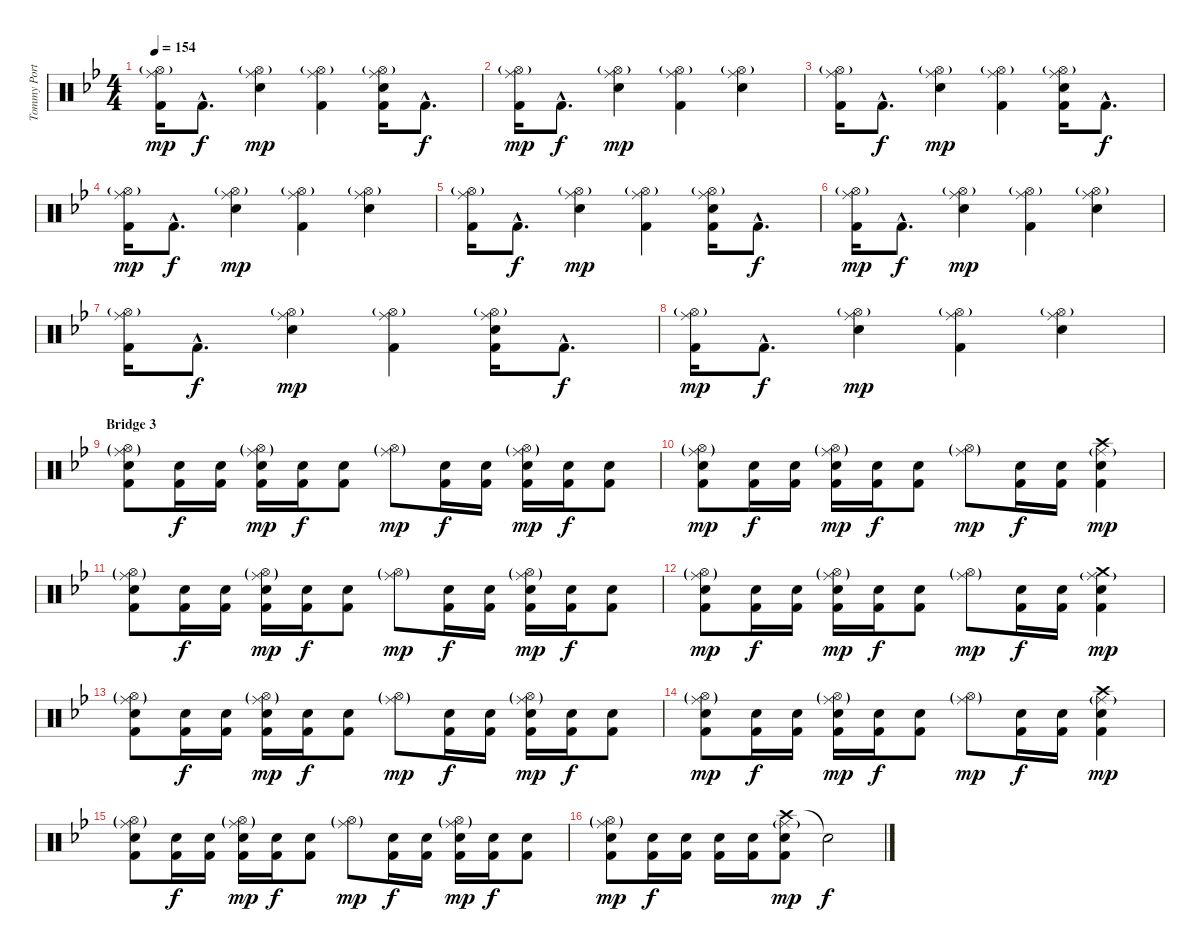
\track ("Tommy Portimo" "Tommy Port") {instrument percussion}
\staff {score}
\articulation defaults
\ts (4 4)
\tempo 154
\clef neutral
\ks gminor
("Hi-Hat (open)"{g} "Ride (middle)" "Kick (hit) 2").16{dy mp} "Kick (hit) 2"{hac}.8{d dy f} ("Hi-Hat (open)"{g} "Ride (middle)" "Electric Snare (hit)").4{dy mp} ("Hi-Hat (open)"{g} "Ride (middle)" "Kick (hit) 2").4 ("Hi-Hat (open)"{g} "Ride (middle)" "Electric Snare (hit)" "Kick (hit) 2").16 "Kick (hit) 2"{hac}.8{d dy f} |
("Hi-Hat (open)"{g} "Ride (middle)" "Kick (hit) 2").16{dy mp} "Kick (hit) 2"{hac}.8{d dy f} ("Hi-Hat (open)"{g} "Ride (middle)" "Electric Snare (hit)").4{dy mp} ("Hi-Hat (open)"{g} "Ride (middle)" "Kick (hit) 2").4 ("Hi-Hat (open)"{g} "Ride (middle)" "Electric Snare (hit)").4 |
("Hi-Hat (open)"{g} "Ride (middle)" "Kick (hit) 2").16 "Kick (hit) 2"{hac}.8{d dy f} ("Hi-Hat (open)"{g} "Ride (middle)" "Electric Snare (hit)").4{dy mp} ("Hi-Hat (open)"{g} "Ride (middle)" "Kick (hit) 2").4 ("Hi-Hat (open)"{g} "Ride (middle)" "Electric Snare (hit)" "Kick (hit) 2").16 "Kick (hit) 2"{hac}.8{d dy f} |
("Hi-Hat (open)"{g} "Ride (middle)" "Kick (hit) 2").16{dy mp} "Kick (hit) 2"{hac}.8{d dy f} ("Hi-Hat (open)"{g} "Ride (middle)" "Electric Snare (hit)").4{dy mp} ("Hi-Hat (open)"{g} "Ride (middle)" "Kick (hit) 2").4 ("Hi-Hat (open)"{g} "Ride (middle)" "Electric Snare (hit)").4 |
("Hi-Hat (open)"{g} "Ride (middle)" "Kick (hit) 2").16 "Kick (hit) 2"{hac}.8{d dy f} ("Hi-Hat (open)"{g} "Ride (middle)" "Electric Snare (hit)").4{dy mp} ("Hi-Hat (open)"{g} "Ride (middle)" "Kick (hit) 2").4 ("Hi-Hat (open)"{g} "Ride (middle)" "Electric Snare (hit)" "Kick (hit) 2").16 "Kick (hit) 2"{hac}.8{d dy f} |
("Hi-Hat (open)"{g} "Ride (middle)" "Kick (hit) 2").16{dy mp} "Kick (hit) 2"{hac}.8{d dy f} ("Hi-Hat (open)"{g} "Ride (middle)" "Electric Snare (hit)").4{dy mp} ("Hi-Hat (open)"{g} "Ride (middle)" "Kick (hit) 2").4 ("Hi-Hat (open)"{g} "Ride (middle)" "Electric Snare (hit)").4 |
("Hi-Hat (open)"{g} "Ride (middle)" "Kick (hit) 2").16 "Kick (hit) 2"{hac}.8{d dy f} ("Hi-Hat (open)"{g} "Ride (middle)" "Electric Snare (hit)").4{dy mp} ("Hi-Hat (open)"{g} "Ride (middle)" "Kick (hit) 2").4 ("Hi-Hat (open)"{g} "Ride (middle)" "Electric Snare (hit)" "Kick (hit) 2").16 "Kick (hit) 2"{hac}.8{d dy f} |
("Hi-Hat (open)"{g} "Ride (middle)" "Kick (hit) 2").16{dy mp} "Kick (hit) 2"{hac}.8{d dy f} ("Hi-Hat (open)"{g} "Ride (middle)" "Electric Snare (hit)").4{dy mp} ("Hi-Hat (open)"{g} "Ride (middle)" "Kick (hit) 2").4 ("Hi-Hat (open)"{g} "Ride (middle)" "Electric Snare (hit)").4 |
\section ("" "Bridge 3")
("Hi-Hat (open)"{g} "Ride (middle)"{g} "Electric Snare (hit)" "Kick (hit) 2").8 ("Electric Snare (hit)" "Kick (hit) 2").16{dy f} ("Electric Snare (hit)" "Kick (hit) 2").16 ("Hi-Hat (open)"{g} "Ride (middle)"{g} "Electric Snare (hit)" "Kick (hit) 2").16{dy mp} ("Electric Snare (hit)" "Kick (hit) 2").16{dy f} ("Electric Snare (hit)" "Kick (hit) 2").8 ("Hi-Hat (open)"{g} "Ride (middle)"{g}).8{dy mp} ("Electric Snare (hit)" "Kick (hit) 2").16{dy f} ("Electric Snare (hit)" "Kick (hit) 2").16 ("Hi-Hat (open)"{g} "Ride (middle)"{g} "Electric Snare (hit)" "Kick (hit) 2").16{dy mp} ("Electric Snare (hit)" "Kick (hit) 2").16{dy f} ("Electric Snare (hit)" "Kick (hit) 2").8 |
("Hi-Hat (open)"{g} "Ride (middle)"{g} "Electric Snare (hit)" "Kick (hit) 2").8{dy mp} ("Electric Snare (hit)" "Kick (hit) 2").16{dy f} ("Electric Snare (hit)" "Kick (hit) 2").16 ("Hi-Hat (open)"{g} "Ride (middle)"{g} "Electric Snare (hit)" "Kick (hit) 2").16{dy mp} ("Electric Snare (hit)" "Kick (hit) 2").16{dy f} ("Electric Snare (hit)" "Kick (hit) 2").8 ("Hi-Hat (open)"{g} "Ride (middle)"{g}).8{dy mp} ("Electric Snare (hit)" "Kick (hit) 2").16{dy f} ("Electric Snare (hit)" "Kick (hit) 2").16 ("Crash high (hit)" "Ride (middle)"{g} "Electric Snare (hit)" "Kick (hit) 2").4{dy mp} |
("Hi-Hat (open)"{g} "Ride (middle)"{g} "Electric Snare (hit)" "Kick (hit) 2").8 ("Electric Snare (hit)" "Kick (hit) 2").16{dy f} ("Electric Snare (hit)" "Kick (hit) 2").16 ("Hi-Hat (open)"{g} "Ride (middle)"{g} "Electric Snare (hit)" "Kick (hit) 2").16{dy mp} ("Electric Snare (hit)" "Kick (hit) 2").16{dy f} ("Electric Snare (hit)" "Kick (hit) 2").8 ("Hi-Hat (open)"{g} "Ride (middle)"{g}).8{dy mp} ("Electric Snare (hit)" "Kick (hit) 2").16{dy f} ("Electric Snare (hit)" "Kick (hit) 2").16 ("Hi-Hat (open)"{g} "Ride (middle)"{g} "Electric Snare (hit)" "Kick (hit) 2").16{dy mp} ("Electric Snare (hit)" "Kick (hit) 2").16{dy f} ("Electric Snare (hit)" "Kick (hit) 2").8 |
("Hi-Hat (open)"{g} "Ride (middle)"{g} "Electric Snare (hit)" "Kick (hit) 2").8{dy mp} ("Electric Snare (hit)" "Kick (hit) 2").16{dy f} ("Electric Snare (hit)" "Kick (hit) 2").16 ("Hi-Hat (open)"{g} "Ride (middle)"{g} "Electric Snare (hit)" "Kick (hit) 2").16{dy mp} ("Electric Snare (hit)" "Kick (hit) 2").16{dy f} ("Electric Snare (hit)" "Kick (hit) 2").8 ("Hi-Hat (open)"{g} "Ride (middle)"{g}).8{dy mp} ("Electric Snare (hit)" "Kick (hit) 2").16{dy f} ("Electric Snare (hit)" "Kick (hit) 2").16 ("Crash medium (hit)" "Ride (middle)"{g} "Electric Snare (hit)" "Kick (hit) 2").4{dy mp} |
("Hi-Hat (open)"{g} "Ride (middle)"{g} "Electric Snare (hit)" "Kick (hit) 2").8 ("Electric Snare (hit)" "Kick (hit) 2").16{dy f} ("Electric Snare (hit)" "Kick (hit) 2").16 ("Hi-Hat (open)"{g} "Ride (middle)"{g} "Electric Snare (hit)" "Kick (hit) 2").16{dy mp} ("Electric Snare (hit)" "Kick (hit) 2").16{dy f} ("Electric Snare (hit)" "Kick (hit) 2").8 ("Hi-Hat (open)"{g} "Ride (middle)"{g}).8{dy mp} ("Electric Snare (hit)" "Kick (hit) 2").16{dy f} ("Electric Snare (hit)" "Kick (hit) 2").16 ("Hi-Hat (open)"{g} "Ride (middle)"{g} "Electric Snare (hit)" "Kick (hit) 2").16{dy mp} ("Electric Snare (hit)" "Kick (hit) 2").16{dy f} ("Electric Snare (hit)" "Kick (hit) 2").8 |
("Hi-Hat (open)"{g} "Ride (middle)"{g} "Electric Snare (hit)" "Kick (hit) 2").8{dy mp} ("Electric Snare (hit)" "Kick (hit) 2").16{dy f} ("Electric Snare (hit)" "Kick (hit) 2").16 ("Hi-Hat (open)"{g} "Ride (middle)"{g} "Electric Snare (hit)" "Kick (hit) 2").16{dy mp} ("Electric Snare (hit)" "Kick (hit) 2").16{dy f} ("Electric Snare (hit)" "Kick (hit) 2").8 ("Hi-Hat (open)"{g} "Ride (middle)"{g}).8{dy mp} ("Electric Snare (hit)" "Kick (hit) 2").16{dy f} ("Electric Snare (hit)" "Kick (hit) 2").16 ("Crash high (hit)" "Ride (middle)"{g} "Electric Snare (hit)" "Kick (hit) 2").4{dy mp} |
("Hi-Hat (open)"{g} "Ride (middle)"{g} "Electric Snare (hit)" "Kick (hit) 2").8 ("Electric Snare (hit)" "Kick (hit) 2").16{dy f} ("Electric Snare (hit)" "Kick (hit) 2").16 ("Hi-Hat (open)"{g} "Ride (middle)"{g} "Electric Snare (hit)" "Kick (hit) 2").16{dy mp} ("Electric Snare (hit)" "Kick (hit) 2").16{dy f} ("Electric Snare (hit)" "Kick (hit) 2").8 ("Hi-Hat (open)"{g} "Ride (middle)"{g}).8{dy mp} ("Electric Snare (hit)" "Kick (hit) 2").16{dy f} ("Electric Snare (hit)" "Kick (hit) 2").16 ("Hi-Hat (open)"{g} "Ride (middle)"{g} "Electric Snare (hit)" "Kick (hit) 2").16{dy mp} ("Electric Snare (hit)" "Kick (hit) 2").16{dy f} ("Electric Snare (hit)" "Kick (hit) 2").8 |
("Hi-Hat (open)"{g} "Ride (middle)"{g} "Electric Snare (hit)" "Kick (hit) 2").8{dy mp} ("Electric Snare (hit)" "Kick (hit) 2").16{dy f} ("Electric Snare (hit)" "Kick (hit) 2").16 ("Electric Snare (hit)" "Kick (hit) 2").16 ("Electric Snare (hit)" "Kick (hit) 2").16 ("Crash high (hit)" "Ride (middle)"{g} "Electric Snare (hit)" "Kick (hit) 2").8{dy mp} "Snare (hit)"{t}.2{dy f}
